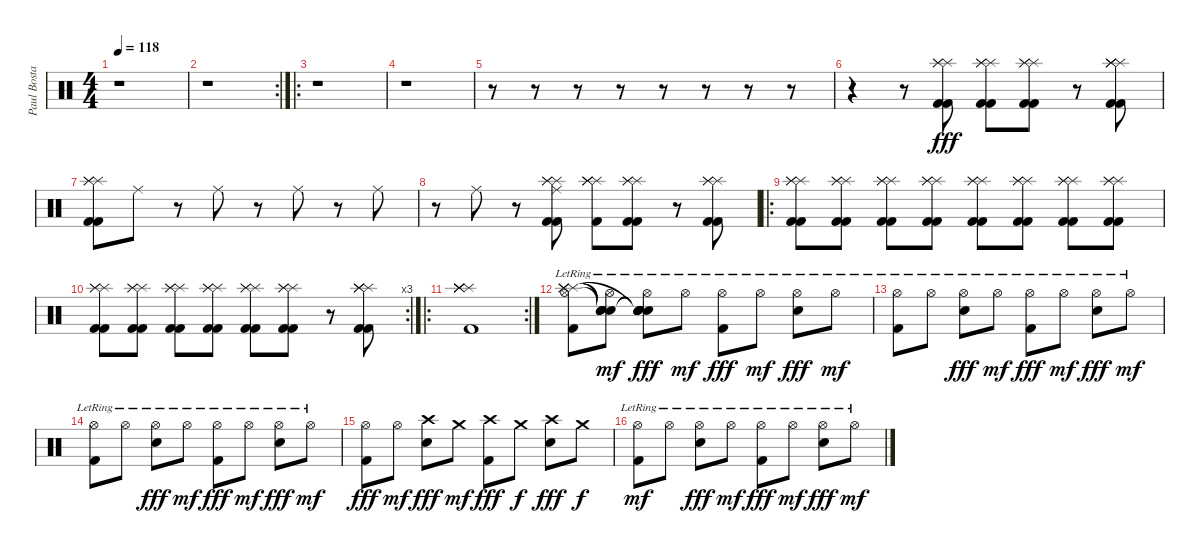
\track ("Paul Bostaph" "Paul Bosta") {instrument percussion}
\staff {score}
\articulation defaults
\ts (4 4)
\tempo 118
\clef neutral
\ks c
r.1{dy fff} |
\rc 2
r.1 |
\ro
r.1 |
r.1 |
r.8 r.8 r.8 r.8 r.8 r.8 r.8 r.8 |
r.4 r.8 ("Splash (hit)" "Splash (hit)" "Splash (hit)" "Kick (hit) 2" "Kick (hit) 2").8 ("Splash (hit)" "Splash (hit)" "Splash (hit)" "Kick (hit) 2" "Kick (hit) 2").8 ("Splash (hit)" "Splash (hit)" "Splash (hit)" "Kick (hit) 2" "Kick (hit) 2").8 r.8 ("Splash (hit)" "Splash (hit)" "Splash (hit)" "Splash (hit)" "Kick (hit) 2" "Kick (hit) 2").8 |
("Splash (hit)" "Splash (hit)" "Splash (hit)" "Kick (hit) 2" "Kick (hit) 2").8 "Ride (middle)".8 r.8 "Ride (middle)".8 r.8 "Ride (middle)".8 r.8 "Ride (middle)".8 |
r.8 "Ride (middle)".8 r.8 ("Ride (middle)" "Splash (hit)" "Splash (hit)" "Splash (hit)" "Kick (hit) 2" "Kick (hit) 2").8 ("Splash (hit)" "Splash (hit)" "Splash (hit)" "Splash (hit)" "Kick (hit) 2").8 ("Splash (hit)" "Splash (hit)" "Splash (hit)" "Kick (hit) 2" "Kick (hit) 2").8 r.8 ("Splash (hit)" "Splash (hit)" "Splash (hit)" "Kick (hit) 2" "Kick (hit) 2").8 |
\ro
("Splash (hit)" "Splash (hit)" "Splash (hit)" "Kick (hit) 2" "Kick (hit) 2").8 ("Splash (hit)" "Splash (hit)" "Splash (hit)" "Kick (hit) 2" "Kick (hit) 2").8 ("Splash (hit)" "Splash (hit)" "Splash (hit)" "Kick (hit) 2" "Kick (hit) 2").8 ("Splash (hit)" "Splash (hit)" "Splash (hit)" "Kick (hit) 2" "Kick (hit) 2").8 ("Splash (hit)" "Splash (hit)" "Splash (hit)" "Kick (hit) 2" "Kick (hit) 2").8 ("Splash (hit)" "Splash (hit)" "Splash (hit)" "Kick (hit) 2" "Kick (hit) 2").8 ("Splash (hit)" "Splash (hit)" "Splash (hit)" "Kick (hit) 2" "Kick (hit) 2").8 ("Splash (hit)" "Splash (hit)" "Splash (hit)" "Kick (hit) 2" "Kick (hit) 2").8 |
\rc 3
("Splash (hit)" "Splash (hit)" "Splash (hit)" "Kick (hit) 2" "Kick (hit) 2").8 ("Splash (hit)" "Splash (hit)" "Splash (hit)" "Kick (hit) 2" "Kick (hit) 2").8 ("Splash (hit)" "Splash (hit)" "Splash (hit)" "Kick (hit) 2" "Kick (hit) 2").8 ("Splash (hit)" "Splash (hit)" "Splash (hit)" "Kick (hit) 2" "Kick (hit) 2").8 ("Splash (hit)" "Splash (hit)" "Splash (hit)" "Kick (hit) 2" "Kick (hit) 2").8 ("Splash (hit)" "Splash (hit)" "Splash (hit)" "Kick (hit) 2" "Kick (hit) 2").8 r.8 ("Splash (hit)" "Splash (hit)" "Splash (hit)" "Splash (hit)" "Kick (hit) 2" "Kick (hit) 2").8 |
\ro
\rc 2
("Splash (hit)" "Splash (hit)" "Splash (hit)" "Splash (hit)" "Splash (hit)" "Kick (hit) 2").1 |
("Splash (hit)" "Splash (hit)" "Splash (hit)" "Kick (hit) 2" "Hi-Hat (open)"{lr} "Splash (hit)").8 ("Snare (hit)"{t} "Snare (hit)"{t} "Snare (hit)"{t} "Hi-Hat (open)"{lr} "Snare (hit)"{t}).8{dy mf} ("Snare (hit)"{t} "Snare (hit)"{t} "Snare (hit)"{t} "Hi-Hat (open)"{lr} "Snare (hit) 2" "Snare (hit)"{t}).8{dy fff} "Hi-Hat (open)"{lr}.8{dy mf} ("Hi-Hat (open)"{lr} "Kick (hit) 2").8{dy fff} "Hi-Hat (open)"{lr}.8{dy mf} ("Hi-Hat (open)"{lr} "Snare (hit) 2").8{dy fff} "Hi-Hat (open)"{lr}.8{dy mf} |
("Kick (hit) 2" "Hi-Hat (open)"{lr}).8 "Hi-Hat (open)"{lr}.8 ("Hi-Hat (open)"{lr} "Snare (hit) 2").8{dy fff} "Hi-Hat (open)"{lr}.8{dy mf} ("Hi-Hat (open)"{lr} "Kick (hit) 2").8{dy fff} "Hi-Hat (open)"{lr}.8{dy mf} ("Hi-Hat (open)"{lr} "Snare (hit) 2").8{dy fff} "Hi-Hat (open)"{lr}.8{dy mf} |
("Kick (hit) 2" "Hi-Hat (open)"{lr}).8 "Hi-Hat (open)"{lr}.8 ("Hi-Hat (open)"{lr} "Snare (hit) 2").8{dy fff} "Hi-Hat (open)"{lr}.8{dy mf} ("Hi-Hat (open)"{lr} "Kick (hit) 2").8{dy fff} "Hi-Hat (open)"{lr}.8{dy mf} ("Hi-Hat (open)"{lr} "Snare (hit) 2").8{dy fff} "Hi-Hat (open)"{lr}.8{dy mf} |
("Hi-Hat (open)" "Kick (hit) 2").8{dy fff} "Hi-Hat (open)".8{dy mf} ("Crash high (hit)" "Snare (hit) 2").8{dy fff} "Crash medium (hit)".8{dy mf} ("Crash high (hit)" "Kick (hit) 2").8{dy fff} "Crash medium (hit)".8{dy f} ("Crash high (hit)" "Snare (hit) 2").8{dy fff} "Crash medium (hit)".8{dy f} |
("Kick (hit) 2" "Hi-Hat (open)"{lr}).8{dy mf} "Hi-Hat (open)"{lr}.8 ("Hi-Hat (open)"{lr} "Snare (hit) 2").8{dy fff} "Hi-Hat (open)"{lr}.8{dy mf} ("Hi-Hat (open)"{lr} "Kick (hit) 2").8{dy fff} "Hi-Hat (open)"{lr}.8{dy mf} ("Hi-Hat (open)"{lr} "Snare (hit) 2").8{dy fff} "Hi-Hat (open)"{lr}.8{dy mf}
